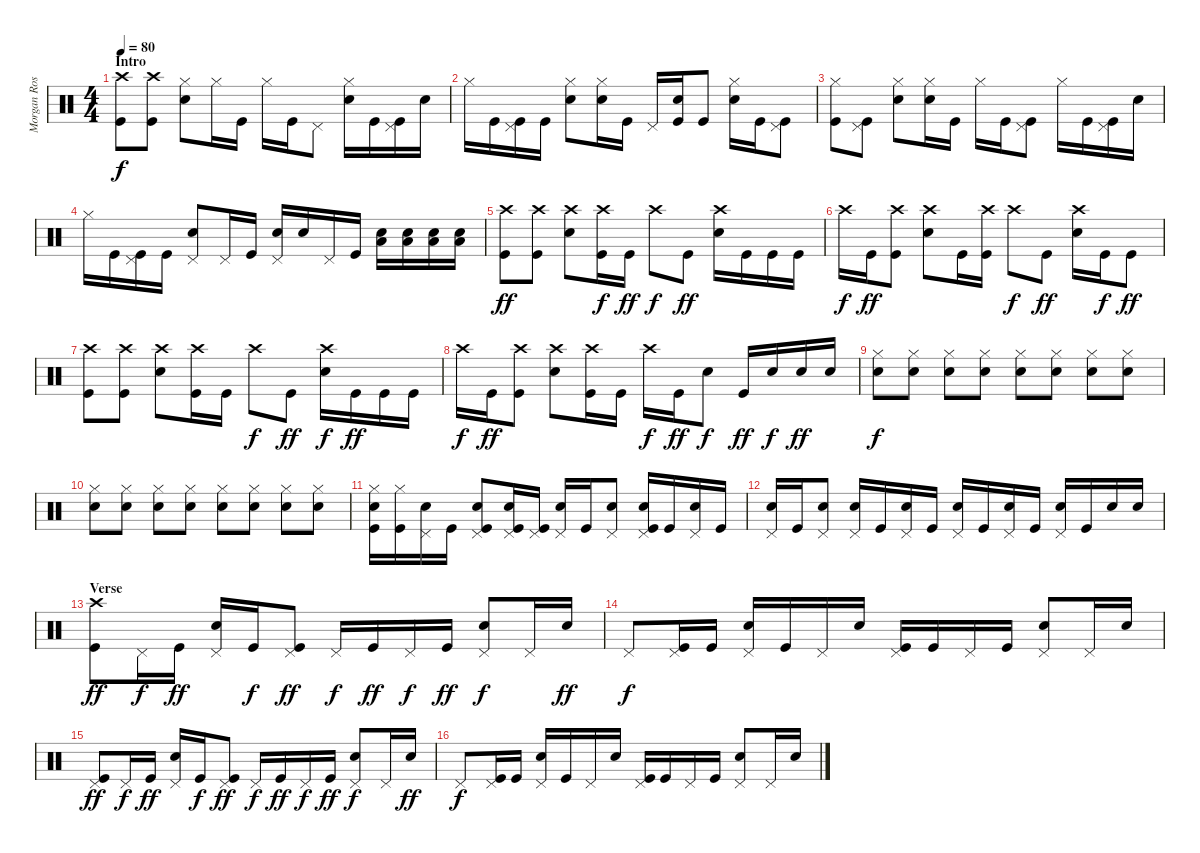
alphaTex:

\track ("Morgan Rose" "Morgan Ros") {instrument percussion}
\staff {score}
\articulation defaults
\ts (4 4)
\section ("" "Intro")
\tempo 80
\clef neutral
\ks c
("Crash high (hit)" "Kick (hit)").8{dy f} ("Crash high (hit)" "Kick (hit)").8 ("Hi-Hat (closed)" "Snare (hit) 2").8 "Hi-Hat (closed)".16 "Kick (hit)".16 "Hi-Hat (closed)".16 "Kick (hit)".16 "Pedal Hi-Hat (hit)".8 ("Hi-Hat (closed)" "Snare (hit) 2").16 "Kick (hit)".16 ("Pedal Hi-Hat (hit)" "Kick (hit)").16 "Snare (hit) 2".16 |
"Hi-Hat (closed)".16 "Kick (hit)".16 ("Pedal Hi-Hat (hit)" "Kick (hit)").16 "Kick (hit)".16 ("Hi-Hat (closed)" "Snare (hit) 2").8 ("Hi-Hat (closed)" "Snare (hit) 2").16 "Kick (hit)".16 "Pedal Hi-Hat (hit)".16 ("Snare (hit) 2" "Kick (hit)").16 "Kick (hit)".8 ("Hi-Hat (closed)" "Snare (hit) 2").16 "Kick (hit)".16 ("Pedal Hi-Hat (hit)" "Kick (hit)").8 |
("Hi-Hat (closed)" "Kick (hit)").8 ("Pedal Hi-Hat (hit)" "Kick (hit)").8 ("Hi-Hat (closed)" "Snare (hit) 2").8 ("Hi-Hat (closed)" "Snare (hit) 2").16 "Kick (hit)".16 "Hi-Hat (closed)".16 "Kick (hit)".16 ("Pedal Hi-Hat (hit)" "Kick (hit)").8 "Hi-Hat (closed)".16 "Kick (hit)".16 ("Pedal Hi-Hat (hit)" "Kick (hit)").16 "Snare (hit) 2".16 |
"Hi-Hat (closed)".16 "Kick (hit)".16 ("Pedal Hi-Hat (hit)" "Kick (hit)").16 "Kick (hit)".16 ("Pedal Hi-Hat (hit)" "Snare (hit) 2").8 "Pedal Hi-Hat (hit)".16 "Kick (hit)".16 ("Pedal Hi-Hat (hit)" "Snare (hit) 2").16 "Snare (hit) 2".16 "Pedal Hi-Hat (hit)".16 "Kick (hit)".16 ("Low Floor Tom (hit)" "Snare (hit) 2").16 ("Low Floor Tom (hit)" "Snare (hit) 2").16 ("Low Floor Tom (hit)" "Snare (hit) 2").16 ("Low Floor Tom (hit)" "Snare (hit) 2").16 |
("Crash high (hit)" "Kick (hit)").8{dy ff} ("Crash high (hit)" "Kick (hit)").8 ("Crash high (hit)" "Snare (hit) 2").8 ("Crash high (hit)" "Kick (hit)").16{dy f} "Kick (hit)".16{dy ff} "Crash high (hit)".8{dy f} "Kick (hit)".8{dy ff} ("Crash high (hit)" "Snare (hit) 2").16 "Kick (hit)".16 "Kick (hit)".16 "Kick (hit)".16 |
"Crash high (hit)".16{dy f} "Kick (hit)".16{dy ff} ("Crash high (hit)" "Kick (hit)").8 ("Crash high (hit)" "Snare (hit) 2").8 "Kick (hit)".16 ("Crash high (hit)" "Kick (hit)").16 "Crash high (hit)".8{dy f} "Kick (hit)".8{dy ff} ("Crash high (hit)" "Snare (hit) 2").16 "Kick (hit)".16{dy f} "Kick (hit)".8{dy ff} |
("Crash high (hit)" "Kick (hit)").8 ("Crash high (hit)" "Kick (hit)").8 ("Crash high (hit)" "Snare (hit) 2").8 ("Crash high (hit)" "Kick (hit)").16 "Kick (hit)".16 "Crash high (hit)".8{dy f} "Kick (hit)".8{dy ff} ("Crash high (hit)" "Snare (hit) 2").16{dy f} "Kick (hit)".16{dy ff} "Kick (hit)".16 "Kick (hit)".16 |
"Crash high (hit)".16{dy f} "Kick (hit)".16{dy ff} ("Crash high (hit)" "Kick (hit)").8 ("Crash high (hit)" "Snare (hit) 2").8 ("Crash high (hit)" "Kick (hit)").16 "Kick (hit)".16 "Crash high (hit)".16{dy f} "Kick (hit)".16{dy ff} "Snare (hit) 2".8{dy f} "Kick (hit)".16{dy ff} "Snare (hit) 2".16{dy f} "Snare (hit) 2".16{dy ff} "Snare (hit) 2".16 |
("Hi-Hat (closed)" "Snare (hit) 2").8{dy f} ("Hi-Hat (closed)" "Snare (hit) 2").8 ("Hi-Hat (closed)" "Snare (hit) 2").8 ("Hi-Hat (closed)" "Snare (hit) 2").8 ("Hi-Hat (closed)" "Snare (hit) 2").8 ("Hi-Hat (closed)" "Snare (hit) 2").8 ("Hi-Hat (closed)" "Snare (hit) 2").8 ("Hi-Hat (closed)" "Snare (hit) 2").8 |
("Hi-Hat (closed)" "Snare (hit) 2").8 ("Hi-Hat (closed)" "Snare (hit) 2").8 ("Hi-Hat (closed)" "Snare (hit) 2").8 ("Hi-Hat (closed)" "Snare (hit) 2").8 ("Hi-Hat (closed)" "Snare (hit) 2").8 ("Hi-Hat (closed)" "Snare (hit) 2").8 ("Hi-Hat (closed)" "Snare (hit) 2").8 ("Hi-Hat (closed)" "Snare (hit) 2").8 |
("Hi-Hat (closed)" "Snare (hit) 2" "Kick (hit)").16 ("Hi-Hat (closed)" "Kick (hit)").16 ("Pedal Hi-Hat (hit)" "Snare (hit) 2").16 "Kick (hit)".16 ("Pedal Hi-Hat (hit)" "Snare (hit) 2" "Kick (hit)").8 ("Pedal Hi-Hat (hit)" "Snare (hit) 2" "Kick (hit)").16 ("Pedal Hi-Hat (hit)" "Kick (hit)").16 ("Pedal Hi-Hat (hit)" "Snare (hit) 2").16 "Kick (hit)".16 ("Pedal Hi-Hat (hit)" "Snare (hit) 2").8 ("Pedal Hi-Hat (hit)" "Snare (hit) 2" "Kick (hit)").16 "Kick (hit)".16 ("Pedal Hi-Hat (hit)" "Snare (hit) 2").16 "Kick (hit)".16 |
("Pedal Hi-Hat (hit)" "Snare (hit) 2").16 "Kick (hit)".16 ("Pedal Hi-Hat (hit)" "Snare (hit) 2").8 ("Pedal Hi-Hat (hit)" "Snare (hit) 2").16 "Kick (hit)".16 ("Pedal Hi-Hat (hit)" "Snare (hit) 2").16 "Kick (hit)".16 ("Pedal Hi-Hat (hit)" "Snare (hit) 2").16 "Kick (hit)".16 ("Pedal Hi-Hat (hit)" "Snare (hit) 2").16 "Kick (hit)".16 ("Pedal Hi-Hat (hit)" "Snare (hit) 2").16 "Kick (hit)".16 "Snare (hit) 2".16 "Snare (hit) 2".16 |
\section ("" "Verse")
("Crash high (hit)" "Kick (hit)").8{dy ff} "Pedal Hi-Hat (hit)".16{dy f} "Kick (hit)".16{dy ff} ("Pedal Hi-Hat (hit)" "Snare (hit) 2").16 "Kick (hit)".16{dy f} ("Pedal Hi-Hat (hit)" "Kick (hit)").8{dy ff} "Pedal Hi-Hat (hit)".16{dy f} "Kick (hit)".16{dy ff} "Pedal Hi-Hat (hit)".16{dy f} "Kick (hit)".16{dy ff} ("Pedal Hi-Hat (hit)" "Snare (hit) 2").8{dy f} "Pedal Hi-Hat (hit)".16 "Snare (hit) 2".16{dy ff} |
"Pedal Hi-Hat (hit)".8{dy f} ("Pedal Hi-Hat (hit)" "Kick (hit)").16 "Kick (hit)".16 ("Pedal Hi-Hat (hit)" "Snare (hit) 2").16 "Kick (hit)".16 "Pedal Hi-Hat (hit)".16 "Snare (hit) 2".16 ("Pedal Hi-Hat (hit)" "Kick (hit)").16 "Kick (hit)".16 "Pedal Hi-Hat (hit)".16 "Kick (hit)".16 ("Pedal Hi-Hat (hit)" "Snare (hit) 2").8 "Pedal Hi-Hat (hit)".16 "Snare (hit) 2".16 |
("Pedal Hi-Hat (hit)" "Kick (hit)").8{dy ff} "Pedal Hi-Hat (hit)".16{dy f} "Kick (hit)".16{dy ff} ("Pedal Hi-Hat (hit)" "Snare (hit) 2").16 "Kick (hit)".16{dy f} ("Pedal Hi-Hat (hit)" "Kick (hit)").8{dy ff} "Pedal Hi-Hat (hit)".16{dy f} "Kick (hit)".16{dy ff} "Pedal Hi-Hat (hit)".16{dy f} "Kick (hit)".16{dy ff} ("Pedal Hi-Hat (hit)" "Snare (hit) 2").8{dy f} "Pedal Hi-Hat (hit)".16 "Snare (hit) 2".16{dy ff} |
"Pedal Hi-Hat (hit)".8{dy f} ("Pedal Hi-Hat (hit)" "Kick (hit)").16 "Kick (hit)".16 ("Pedal Hi-Hat (hit)" "Snare (hit) 2").16 "Kick (hit)".16 "Pedal Hi-Hat (hit)".16 "Snare (hit) 2".16 ("Pedal Hi-Hat (hit)" "Kick (hit)").16 "Kick (hit)".16 "Pedal Hi-Hat (hit)".16 "Kick (hit)".16 ("Pedal Hi-Hat (hit)" "Snare (hit) 2").8 "Pedal Hi-Hat (hit)".16 "Snare (hit) 2".16
